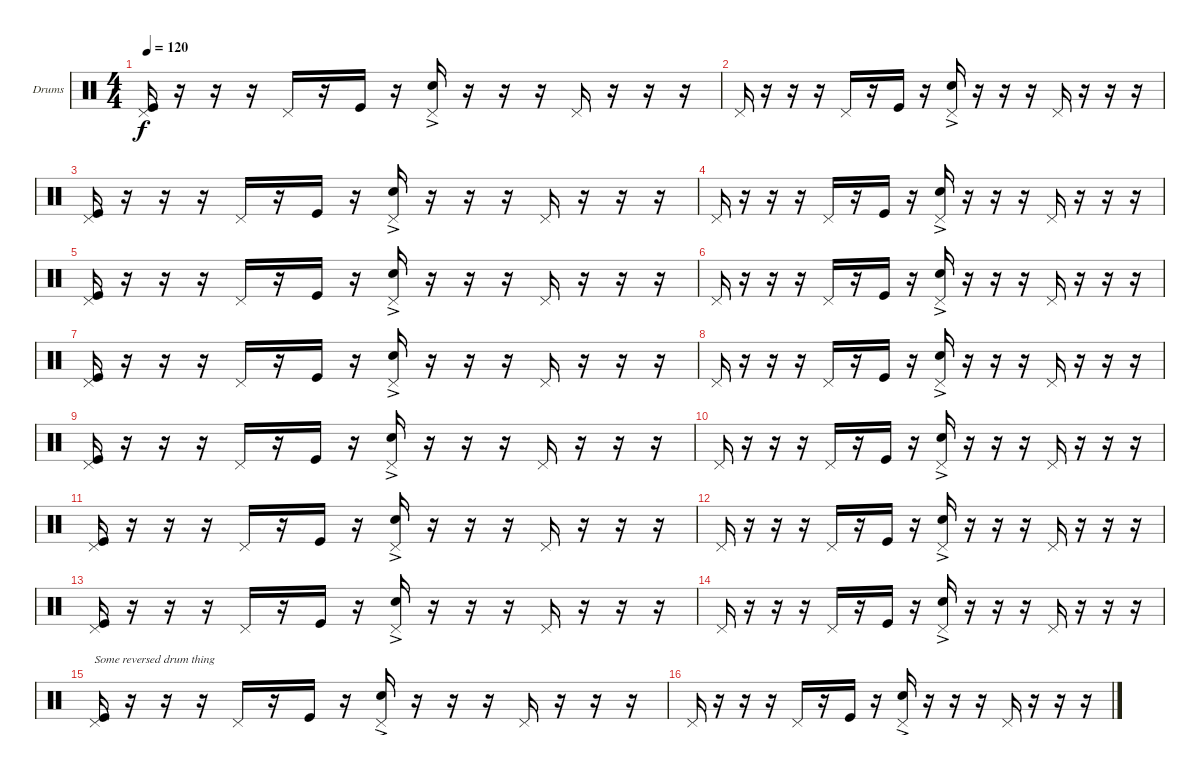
\defaultSystemsLayout 4
\bracketExtendMode groupsimilarinstruments
\firstSystemTrackNameOrientation horizontal
\otherSystemsTrackNameOrientation horizontal
\track ("Drumkit" "Drums") {instrument percussion}
\staff {score}
\articulation defaults
\ts (4 4)
\tempo 120
\clef neutral
\scale
0.474178
\ks c
("Kick (hit)" "Pedal Hi-Hat (hit)").16{dy f} r.16 r.16 r.16 "Pedal Hi-Hat (hit)".16 r.16 "Kick (hit)".16 r.16 ("Snare (hit) 2"{ac} "Pedal Hi-Hat (hit)"{ac}).16 r.16 r.16 r.16 "Pedal Hi-Hat (hit)".16 r.16 r.16 r.16 |
\scale
0.262911 "Pedal Hi-Hat (hit)".16 r.16 r.16 r.16 "Pedal Hi-Hat (hit)".16 r.16 "Kick (hit)".16 r.16 ("Pedal Hi-Hat (hit)"{ac} "Snare (hit) 2"{ac}).16 r.16 r.16 r.16 "Pedal Hi-Hat (hit)".16 r.16 r.16 r.16 |
\scale
0.333333 ("Kick (hit)" "Pedal Hi-Hat (hit)").16 r.16 r.16 r.16 "Pedal Hi-Hat (hit)".16 r.16 "Kick (hit)".16 r.16 ("Snare (hit) 2"{ac} "Pedal Hi-Hat (hit)"{ac}).16 r.16 r.16 r.16 "Pedal Hi-Hat (hit)".16 r.16 r.16 r.16 |
\scale
0.333333 "Pedal Hi-Hat (hit)".16 r.16 r.16 r.16 "Pedal Hi-Hat (hit)".16 r.16 "Kick (hit)".16 r.16 ("Pedal Hi-Hat (hit)"{ac} "Snare (hit) 2"{ac}).16 r.16 r.16 r.16 "Pedal Hi-Hat (hit)".16 r.16 r.16 r.16 |
\scale
0.333333 ("Kick (hit)" "Pedal Hi-Hat (hit)").16 r.16 r.16 r.16 "Pedal Hi-Hat (hit)".16 r.16 "Kick (hit)".16 r.16 ("Snare (hit) 2"{ac} "Pedal Hi-Hat (hit)"{ac}).16 r.16 r.16 r.16 "Pedal Hi-Hat (hit)".16 r.16 r.16 r.16 |
\scale
0.333333 "Pedal Hi-Hat (hit)".16 r.16 r.16 r.16 "Pedal Hi-Hat (hit)".16 r.16 "Kick (hit)".16 r.16 ("Pedal Hi-Hat (hit)"{ac} "Snare (hit) 2"{ac}).16 r.16 r.16 r.16 "Pedal Hi-Hat (hit)".16 r.16 r.16 r.16 |
\scale
0.333333 ("Kick (hit)" "Pedal Hi-Hat (hit)").16 r.16 r.16 r.16 "Pedal Hi-Hat (hit)".16 r.16 "Kick (hit)".16 r.16 ("Snare (hit) 2"{ac} "Pedal Hi-Hat (hit)"{ac}).16 r.16 r.16 r.16 "Pedal Hi-Hat (hit)".16 r.16 r.16 r.16 |
\scale
0.333333 "Pedal Hi-Hat (hit)".16 r.16 r.16 r.16 "Pedal Hi-Hat (hit)".16 r.16 "Kick (hit)".16 r.16 ("Pedal Hi-Hat (hit)"{ac} "Snare (hit) 2"{ac}).16 r.16 r.16 r.16 "Pedal Hi-Hat (hit)".16 r.16 r.16 r.16 |
\scale
0.333333 ("Kick (hit)" "Pedal Hi-Hat (hit)").16 r.16 r.16 r.16 "Pedal Hi-Hat (hit)".16 r.16 "Kick (hit)".16 r.16 ("Snare (hit) 2"{ac} "Pedal Hi-Hat (hit)"{ac}).16 r.16 r.16 r.16 "Pedal Hi-Hat (hit)".16 r.16 r.16 r.16 |
\scale
0.333333 "Pedal Hi-Hat (hit)".16 r.16 r.16 r.16 "Pedal Hi-Hat (hit)".16 r.16 "Kick (hit)".16 r.16 ("Pedal Hi-Hat (hit)"{ac} "Snare (hit) 2"{ac}).16 r.16 r.16 r.16 "Pedal Hi-Hat (hit)".16 r.16 r.16 r.16 |
\scale
0.333333 ("Kick (hit)" "Pedal Hi-Hat (hit)").16 r.16 r.16 r.16 "Pedal Hi-Hat (hit)".16 r.16 "Kick (hit)".16 r.16 ("Snare (hit) 2"{ac} "Pedal Hi-Hat (hit)"{ac}).16 r.16 r.16 r.16 "Pedal Hi-Hat (hit)".16 r.16 r.16 r.16 |
\scale
0.333333 "Pedal Hi-Hat (hit)".16 r.16 r.16 r.16 "Pedal Hi-Hat (hit)".16 r.16 "Kick (hit)".16 r.16 ("Pedal Hi-Hat (hit)"{ac} "Snare (hit) 2"{ac}).16 r.16 r.16 r.16 "Pedal Hi-Hat (hit)".16 r.16 r.16 r.16 |
\scale
0.333333 ("Kick (hit)" "Pedal Hi-Hat (hit)").16 r.16 r.16 r.16 "Pedal Hi-Hat (hit)".16 r.16 "Kick (hit)".16 r.16 ("Snare (hit) 2"{ac} "Pedal Hi-Hat (hit)"{ac}).16 r.16 r.16 r.16 "Pedal Hi-Hat (hit)".16 r.16 r.16 r.16 |
\scale
0.333333 "Pedal Hi-Hat (hit)".16 r.16 r.16 r.16 "Pedal Hi-Hat (hit)".16 r.16 "Kick (hit)".16 r.16 ("Pedal Hi-Hat (hit)"{ac} "Snare (hit) 2"{ac}).16 r.16 r.16 r.16 "Pedal Hi-Hat (hit)".16 r.16 r.16 r.16 |
\scale
0.333333 ("Kick (hit)" "Pedal Hi-Hat (hit)").16{txt "Some reversed drum thing"} r.16 r.16 r.16 "Pedal Hi-Hat (hit)".16 r.16 "Kick (hit)".16 r.16 ("Snare (hit) 2"{ac} "Pedal Hi-Hat (hit)"{ac}).16 r.16 r.16 r.16 "Pedal Hi-Hat (hit)".16 r.16 r.16 r.16 |
\scale
0.333333 "Pedal Hi-Hat (hit)".16 r.16 r.16 r.16 "Pedal Hi-Hat (hit)".16 r.16 "Kick (hit)".16 r.16 ("Pedal Hi-Hat (hit)"{ac} "Snare (hit) 2"{ac}).16 r.16 r.16 r.16 "Pedal Hi-Hat (hit)".16 r.16 r.16 r.16
